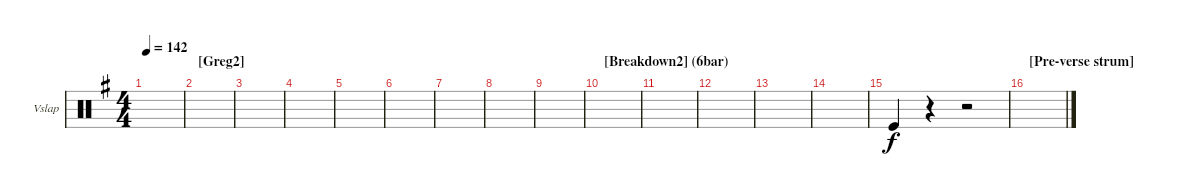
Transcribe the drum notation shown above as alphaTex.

\bracketExtendMode groupsimilarinstruments
\firstSystemTrackNameOrientation horizontal
\otherSystemsTrackNameOrientation horizontal
\track ("Vibraslap" "Vslap") {instrument percussion}
\staff {score}
\articulation defaults
\ts (4 4)
\tempo 142
\clef neutral
\ks eminor
|
\section ("" "[Greg2]")
|
|
|
|
|
|
|
|
\section ("" "[Breakdown2] (6bar)  ")
|
|
|
|
|
"Kick (hit)".4 r.4 r.2 |
\section ("" "[Pre-verse strum] ")
